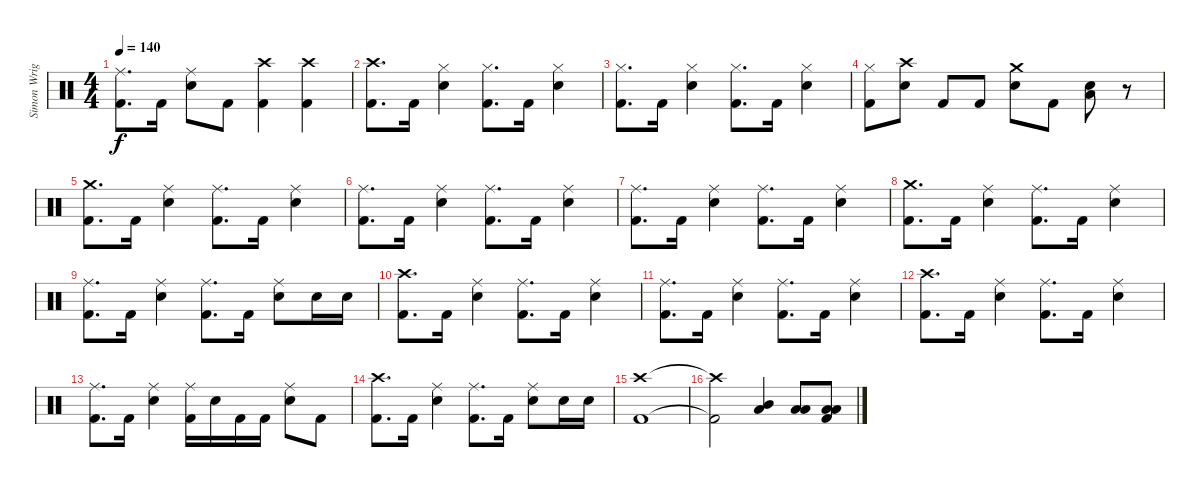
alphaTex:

\track ("Simon Wright" "Simon Wrig") {instrument percussion}
\staff {score}
\articulation defaults
\ts (4 4)
\tempo 140
\clef neutral
\ks c
("Ride (middle)" "Kick (hit) 2").8{d dy f} "Kick (hit) 2".16 ("Ride (middle)" "Snare (hit) 2").8 "Kick (hit) 2".8 ("Crash high (hit)" "Kick (hit) 2").4 ("Crash high (hit)" "Kick (hit) 2").4 |
("Crash high (hit)" "Kick (hit) 2").8{d} "Kick (hit) 2".16 ("Hi-Hat (closed)" "Snare (hit) 2").4 ("Hi-Hat (closed)" "Kick (hit) 2").8{d} "Kick (hit) 2".16 ("Hi-Hat (closed)" "Snare (hit) 2").4 |
("Hi-Hat (closed)" "Kick (hit) 2").8{d} "Kick (hit) 2".16 ("Hi-Hat (closed)" "Snare (hit) 2").4 ("Hi-Hat (closed)" "Kick (hit) 2").8{d} "Kick (hit) 2".16 ("Hi-Hat (closed)" "Snare (hit) 2").4 |
("Hi-Hat (closed)" "Kick (hit) 2").8 ("Crash high (hit)" "Snare (hit) 2").8 "Kick (hit) 2".8 "Kick (hit) 2".8 ("Crash medium (hit)" "Snare (hit) 2").8 "Kick (hit) 2".8 ("Low Tom (hit)" "Snare (hit) 2").8 r.8 |
("Crash medium (hit)" "Kick (hit) 2").8{d} "Kick (hit) 2".16 ("Ride (middle)" "Snare (hit) 2").4 ("Ride (middle)" "Kick (hit) 2").8{d} "Kick (hit) 2".16 ("Ride (middle)" "Snare (hit) 2").4 |
("Ride (middle)" "Kick (hit) 2").8{d} "Kick (hit) 2".16 ("Ride (middle)" "Snare (hit) 2").4 ("Ride (middle)" "Kick (hit) 2").8{d} "Kick (hit) 2".16 ("Ride (middle)" "Snare (hit) 2").4 |
("Ride (middle)" "Kick (hit) 2").8{d} "Kick (hit) 2".16 ("Ride (middle)" "Snare (hit) 2").4 ("Ride (middle)" "Kick (hit) 2").8{d} "Kick (hit) 2".16 ("Ride (middle)" "Snare (hit) 2").4 |
("Crash medium (hit)" "Kick (hit) 2").8{d} "Kick (hit) 2".16 ("Ride (middle)" "Snare (hit) 2").4 ("Ride (middle)" "Kick (hit) 2").8{d} "Kick (hit) 2".16 ("Ride (middle)" "Snare (hit) 2").4 |
("Ride (middle)" "Kick (hit) 2").8{d} "Kick (hit) 2".16 ("Ride (middle)" "Snare (hit) 2").4 ("Ride (middle)" "Kick (hit) 2").8{d} "Kick (hit) 2".16 ("Ride (middle)" "Snare (hit) 2").8 "Snare (hit) 2".16 "Snare (hit) 2".16 |
("Crash high (hit)" "Kick (hit) 2").8{d} "Kick (hit) 2".16 ("Ride (middle)" "Snare (hit) 2").4 ("Ride (middle)" "Kick (hit) 2").8{d} "Kick (hit) 2".16 ("Ride (middle)" "Snare (hit) 2").4 |
("Ride (middle)" "Kick (hit) 2").8{d} "Kick (hit) 2".16 ("Ride (middle)" "Snare (hit) 2").4 ("Ride (middle)" "Kick (hit) 2").8{d} "Kick (hit) 2".16 ("Ride (middle)" "Snare (hit) 2").4 |
("Crash high (hit)" "Kick (hit) 2").8{d} "Kick (hit) 2".16 ("Ride (middle)" "Snare (hit) 2").4 ("Ride (middle)" "Kick (hit) 2").8{d} "Kick (hit) 2".16 ("Ride (middle)" "Snare (hit) 2").4 |
("Ride (middle)" "Kick (hit) 2").8{d} "Kick (hit) 2".16 ("Ride (middle)" "Snare (hit) 2").4 ("Ride (middle)" "Kick (hit) 2").16 "Snare (hit) 2".16 "Kick (hit) 2".16 "Kick (hit) 2".16 ("Ride (middle)" "Snare (hit) 2").8 "Kick (hit) 2".8 |
("Crash high (hit)" "Kick (hit) 2").8{d} "Kick (hit) 2".16 ("Ride (middle)" "Snare (hit) 2").4 ("Ride (middle)" "Kick (hit) 2").8{d} "Kick (hit) 2".16 ("Ride (middle)" "Snare (hit) 2").8 "Snare (hit) 2".16 "Snare (hit) 2".16 |
("Crash high (hit)" "Kick (hit) 2").1 |
("Crash high (hit)"{t} "Kick (hit) 2"{t}).2 ("Low Tom (hit)" "Mid Tom (hit)").4 ("Low Tom (hit)" "Low Floor Tom (hit)").8 ("Low Tom (hit)" "Low Floor Tom (hit)" "Kick (hit) 2").8
